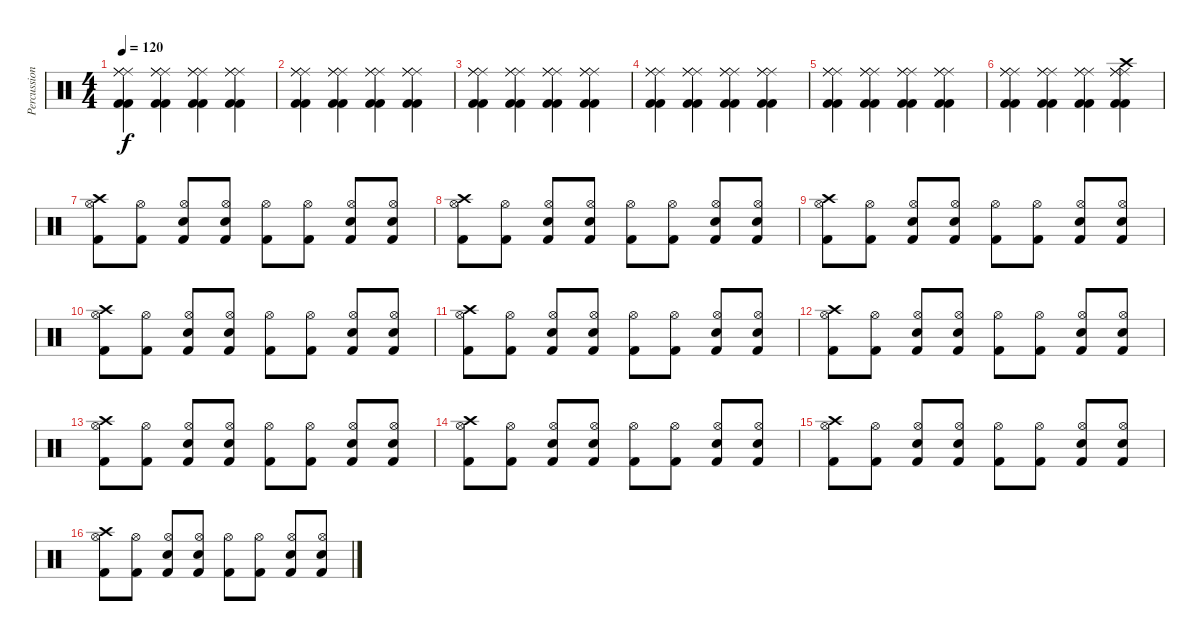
\track ("Percussioni" "Percussion") {instrument percussion}
\staff {score}
\articulation defaults
\ts (4 4)
\tempo 120
\clef neutral
\ks c
("Kick (hit) 2" "Kick (hit) 2" "Ride (middle)" "Ride (middle)" "Ride (middle)").4{dy f} ("Kick (hit) 2" "Kick (hit) 2" "Ride (middle)" "Ride (middle)" "Ride (middle)").4 ("Kick (hit) 2" "Kick (hit) 2" "Ride (middle)" "Ride (middle)" "Ride (middle)").4 ("Kick (hit) 2" "Kick (hit) 2" "Ride (middle)" "Ride (middle)" "Ride (middle)").4 |
("Kick (hit) 2" "Kick (hit) 2" "Ride (middle)" "Ride (middle)" "Ride (middle)").4 ("Kick (hit) 2" "Kick (hit) 2" "Ride (middle)" "Ride (middle)" "Ride (middle)").4 ("Kick (hit) 2" "Kick (hit) 2" "Ride (middle)" "Ride (middle)" "Ride (middle)").4 ("Kick (hit) 2" "Kick (hit) 2" "Ride (middle)" "Ride (middle)" "Ride (middle)").4 |
("Kick (hit) 2" "Kick (hit) 2" "Ride (middle)" "Ride (middle)" "Ride (middle)").4 ("Kick (hit) 2" "Kick (hit) 2" "Ride (middle)" "Ride (middle)" "Ride (middle)").4 ("Kick (hit) 2" "Kick (hit) 2" "Ride (middle)" "Ride (middle)" "Ride (middle)").4 ("Kick (hit) 2" "Kick (hit) 2" "Ride (middle)" "Ride (middle)" "Ride (middle)").4 |
("Kick (hit) 2" "Kick (hit) 2" "Ride (middle)" "Ride (middle)" "Ride (middle)").4 ("Kick (hit) 2" "Kick (hit) 2" "Ride (middle)" "Ride (middle)" "Ride (middle)").4 ("Kick (hit) 2" "Kick (hit) 2" "Ride (middle)" "Ride (middle)" "Ride (middle)").4 ("Kick (hit) 2" "Kick (hit) 2" "Ride (middle)" "Ride (middle)" "Ride (middle)").4 |
("Kick (hit) 2" "Kick (hit) 2" "Ride (middle)" "Ride (middle)" "Ride (middle)").4 ("Kick (hit) 2" "Kick (hit) 2" "Ride (middle)" "Ride (middle)" "Ride (middle)").4 ("Kick (hit) 2" "Kick (hit) 2" "Ride (middle)" "Ride (middle)" "Ride (middle)").4 ("Kick (hit) 2" "Kick (hit) 2" "Ride (middle)" "Ride (middle)" "Ride (middle)").4 |
("Kick (hit) 2" "Kick (hit) 2" "Ride (middle)" "Ride (middle)" "Ride (middle)").4 ("Kick (hit) 2" "Kick (hit) 2" "Ride (middle)" "Ride (middle)" "Ride (middle)").4 ("Kick (hit) 2" "Kick (hit) 2" "Ride (middle)" "Ride (middle)" "Ride (middle)").4 ("Crash high (hit)" "Kick (hit) 2" "Kick (hit) 2" "Ride (middle)" "Ride (middle)" "Ride (middle)").4 |
("Hi-Hat (open)" "Kick (hit) 2" "Crash high (hit)").8 ("Hi-Hat (open)" "Kick (hit) 2").8 ("Hi-Hat (open)" "Kick (hit) 2" "Electric Snare (hit)").8 ("Hi-Hat (open)" "Kick (hit) 2" "Electric Snare (hit)").8 ("Hi-Hat (open)" "Kick (hit) 2").8 ("Hi-Hat (open)" "Kick (hit) 2").8 ("Hi-Hat (open)" "Kick (hit) 2" "Electric Snare (hit)").8 ("Hi-Hat (open)" "Kick (hit) 2" "Electric Snare (hit)").8 |
("Hi-Hat (open)" "Kick (hit) 2" "Crash high (hit)").8 ("Hi-Hat (open)" "Kick (hit) 2").8 ("Hi-Hat (open)" "Kick (hit) 2" "Electric Snare (hit)").8 ("Hi-Hat (open)" "Kick (hit) 2" "Electric Snare (hit)").8 ("Hi-Hat (open)" "Kick (hit) 2").8 ("Hi-Hat (open)" "Kick (hit) 2").8 ("Hi-Hat (open)" "Kick (hit) 2" "Electric Snare (hit)").8 ("Hi-Hat (open)" "Kick (hit) 2" "Electric Snare (hit)").8 |
("Hi-Hat (open)" "Kick (hit) 2" "Crash high (hit)").8 ("Hi-Hat (open)" "Kick (hit) 2").8 ("Hi-Hat (open)" "Kick (hit) 2" "Electric Snare (hit)").8 ("Hi-Hat (open)" "Kick (hit) 2" "Electric Snare (hit)").8 ("Hi-Hat (open)" "Kick (hit) 2").8 ("Hi-Hat (open)" "Kick (hit) 2").8 ("Hi-Hat (open)" "Kick (hit) 2" "Electric Snare (hit)").8 ("Hi-Hat (open)" "Kick (hit) 2" "Electric Snare (hit)").8 |
("Hi-Hat (open)" "Kick (hit) 2" "Crash high (hit)").8 ("Hi-Hat (open)" "Kick (hit) 2").8 ("Hi-Hat (open)" "Kick (hit) 2" "Electric Snare (hit)").8 ("Hi-Hat (open)" "Kick (hit) 2" "Electric Snare (hit)").8 ("Hi-Hat (open)" "Kick (hit) 2").8 ("Hi-Hat (open)" "Kick (hit) 2").8 ("Hi-Hat (open)" "Kick (hit) 2" "Electric Snare (hit)").8 ("Hi-Hat (open)" "Kick (hit) 2" "Electric Snare (hit)").8 |
("Hi-Hat (open)" "Kick (hit) 2" "Crash high (hit)").8 ("Hi-Hat (open)" "Kick (hit) 2").8 ("Hi-Hat (open)" "Kick (hit) 2" "Electric Snare (hit)").8 ("Hi-Hat (open)" "Kick (hit) 2" "Electric Snare (hit)").8 ("Hi-Hat (open)" "Kick (hit) 2").8 ("Hi-Hat (open)" "Kick (hit) 2").8 ("Hi-Hat (open)" "Kick (hit) 2" "Electric Snare (hit)").8 ("Hi-Hat (open)" "Kick (hit) 2" "Electric Snare (hit)").8 |
("Hi-Hat (open)" "Kick (hit) 2" "Crash high (hit)").8 ("Hi-Hat (open)" "Kick (hit) 2").8 ("Hi-Hat (open)" "Kick (hit) 2" "Electric Snare (hit)").8 ("Hi-Hat (open)" "Kick (hit) 2" "Electric Snare (hit)").8 ("Hi-Hat (open)" "Kick (hit) 2").8 ("Hi-Hat (open)" "Kick (hit) 2").8 ("Hi-Hat (open)" "Kick (hit) 2" "Electric Snare (hit)").8 ("Hi-Hat (open)" "Kick (hit) 2" "Electric Snare (hit)").8 |
("Hi-Hat (open)" "Kick (hit) 2" "Crash high (hit)").8 ("Hi-Hat (open)" "Kick (hit) 2").8 ("Hi-Hat (open)" "Kick (hit) 2" "Electric Snare (hit)").8 ("Hi-Hat (open)" "Kick (hit) 2" "Electric Snare (hit)").8 ("Hi-Hat (open)" "Kick (hit) 2").8 ("Hi-Hat (open)" "Kick (hit) 2").8 ("Hi-Hat (open)" "Kick (hit) 2" "Electric Snare (hit)").8 ("Hi-Hat (open)" "Kick (hit) 2" "Electric Snare (hit)").8 |
("Hi-Hat (open)" "Kick (hit) 2" "Crash high (hit)").8 ("Hi-Hat (open)" "Kick (hit) 2").8 ("Hi-Hat (open)" "Kick (hit) 2" "Electric Snare (hit)").8 ("Hi-Hat (open)" "Kick (hit) 2" "Electric Snare (hit)").8 ("Hi-Hat (open)" "Kick (hit) 2").8 ("Hi-Hat (open)" "Kick (hit) 2").8 ("Hi-Hat (open)" "Kick (hit) 2" "Electric Snare (hit)").8 ("Hi-Hat (open)" "Kick (hit) 2" "Electric Snare (hit)").8 |
("Hi-Hat (open)" "Kick (hit) 2" "Crash high (hit)").8 ("Hi-Hat (open)" "Kick (hit) 2").8 ("Hi-Hat (open)" "Kick (hit) 2" "Electric Snare (hit)").8 ("Hi-Hat (open)" "Kick (hit) 2" "Electric Snare (hit)").8 ("Hi-Hat (open)" "Kick (hit) 2").8 ("Hi-Hat (open)" "Kick (hit) 2").8 ("Hi-Hat (open)" "Kick (hit) 2" "Electric Snare (hit)").8 ("Hi-Hat (open)" "Kick (hit) 2" "Electric Snare (hit)").8 |
("Hi-Hat (open)" "Kick (hit) 2" "Crash high (hit)").8 ("Hi-Hat (open)" "Kick (hit) 2").8 ("Hi-Hat (open)" "Kick (hit) 2" "Electric Snare (hit)").8 ("Hi-Hat (open)" "Kick (hit) 2" "Electric Snare (hit)").8 ("Hi-Hat (open)" "Kick (hit) 2").8 ("Hi-Hat (open)" "Kick (hit) 2").8 ("Hi-Hat (open)" "Kick (hit) 2" "Electric Snare (hit)").8 ("Hi-Hat (open)" "Kick (hit) 2" "Electric Snare (hit)").8
